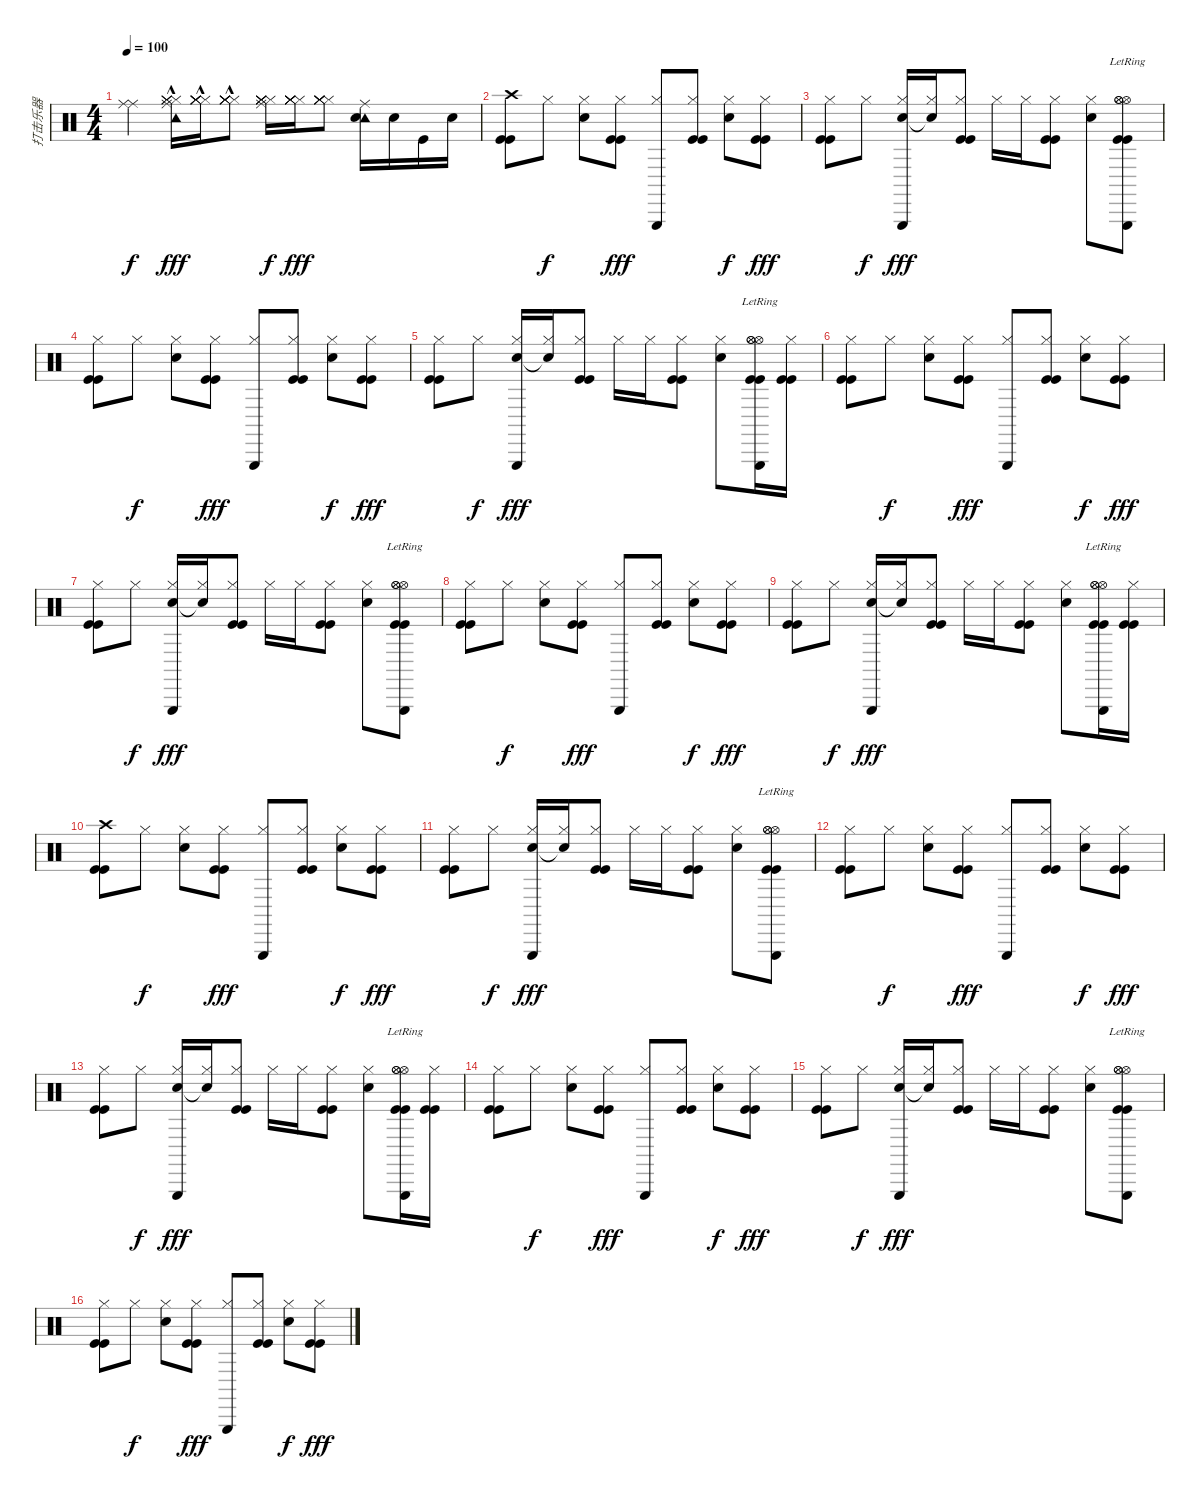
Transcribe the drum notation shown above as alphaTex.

\track ("打击乐器" "打击乐器") {instrument percussion}
\staff {score}
\articulation defaults
\ts (4 4)
\tempo 100
\clef neutral
\ks c
("Ride (middle)" "Ride (middle)").4{dy f} ("Ride (middle)"{hac} "Tambourine (hit)" "Hi-Hat (closed)" "Hi-Hat (closed)" "Hi-Hat (closed)" "Hi-Hat (closed)").16{dy fff} ("Hi-Hat (closed)"{hac} "Hi-Hat (closed)" "Hi-Hat (closed)" "Hi-Hat (closed)" "Hi-Hat (closed)" "Hi-Hat (closed)").16 ("Hi-Hat (closed)" "Hi-Hat (closed)"{hac} "Hi-Hat (closed)" "Hi-Hat (closed)" "Hi-Hat (closed)" "Hi-Hat (closed)").8 ("Ride (middle)" "Hi-Hat (closed)" "Hi-Hat (closed)" "Hi-Hat (closed)" "Hi-Hat (closed)" "Hi-Hat (closed)").16{dy f} ("Hi-Hat (closed)" "Hi-Hat (closed)" "Hi-Hat (closed)" "Hi-Hat (closed)" "Hi-Hat (closed)" "Hi-Hat (closed)").16{dy fff} ("Hi-Hat (closed)" "Hi-Hat (closed)" "Hi-Hat (closed)" "Hi-Hat (closed)" "Hi-Hat (closed)" "Hi-Hat (closed)").8 ("Ride (middle)" "Tambourine (hit)" "Electric Snare (hit)").16 "Electric Snare (hit)".16 "Kick (hit)".16 "Electric Snare (hit)".16 |
("Crash high (hit)" "Kick (hit)" "Kick (hit)").8 "Hi-Hat (closed)".8{dy f} ("Hi-Hat (closed)" "Electric Snare (hit)").8 ("Hi-Hat (closed)" "Kick (hit)" "Kick (hit)").8{dy fff} ("Hi-Hat (closed)" "Triangle (hit)").8 ("Hi-Hat (closed)" "Kick (hit)" "Kick (hit)").8 ("Hi-Hat (closed)" "Electric Snare (hit)").8{dy f} ("Hi-Hat (closed)" "Kick (hit)" "Kick (hit)").8{dy fff} |
("Hi-Hat (closed)" "Kick (hit)" "Kick (hit)").8 "Hi-Hat (closed)".8{dy f} ("Hi-Hat (closed)" "Electric Snare (hit)" "Triangle (hit)").16{dy fff} ("Hi-Hat (closed)" "Snare (hit)"{t}).16 ("Hi-Hat (closed)" "Kick (hit)" "Kick (hit)").8 "Hi-Hat (closed)".16 "Hi-Hat (closed)".16 ("Hi-Hat (closed)" "Kick (hit)" "Kick (hit)").8 ("Hi-Hat (closed)" "Electric Snare (hit)").8 ("Hi-Hat (open)" "Hi-Hat (open)" "Hi-Hat (open)" "Triangle (hit)"{lr} "Kick (hit)" "Kick (hit)").8 |
("Hi-Hat (closed)" "Kick (hit)" "Kick (hit)").8 "Hi-Hat (closed)".8{dy f} ("Hi-Hat (closed)" "Electric Snare (hit)").8 ("Hi-Hat (closed)" "Kick (hit)" "Kick (hit)").8{dy fff} ("Hi-Hat (closed)" "Triangle (hit)").8 ("Hi-Hat (closed)" "Kick (hit)" "Kick (hit)").8 ("Hi-Hat (closed)" "Electric Snare (hit)").8{dy f} ("Hi-Hat (closed)" "Kick (hit)" "Kick (hit)").8{dy fff} |
("Hi-Hat (closed)" "Kick (hit)" "Kick (hit)").8 "Hi-Hat (closed)".8{dy f} ("Hi-Hat (closed)" "Electric Snare (hit)" "Triangle (hit)").16{dy fff} ("Hi-Hat (closed)" "Snare (hit)"{t}).16 ("Hi-Hat (closed)" "Kick (hit)" "Kick (hit)").8 "Hi-Hat (closed)".16 "Hi-Hat (closed)".16 ("Hi-Hat (closed)" "Kick (hit)" "Kick (hit)").8 ("Hi-Hat (closed)" "Electric Snare (hit)").8 ("Hi-Hat (open)" "Hi-Hat (open)" "Hi-Hat (open)" "Triangle (hit)"{lr} "Kick (hit)" "Kick (hit)").16 ("Hi-Hat (closed)" "Kick (hit)" "Kick (hit)").16 |
("Hi-Hat (closed)" "Kick (hit)" "Kick (hit)").8 "Hi-Hat (closed)".8{dy f} ("Hi-Hat (closed)" "Electric Snare (hit)").8 ("Hi-Hat (closed)" "Kick (hit)" "Kick (hit)").8{dy fff} ("Hi-Hat (closed)" "Triangle (hit)").8 ("Hi-Hat (closed)" "Kick (hit)" "Kick (hit)").8 ("Hi-Hat (closed)" "Electric Snare (hit)").8{dy f} ("Hi-Hat (closed)" "Kick (hit)" "Kick (hit)").8{dy fff} |
("Hi-Hat (closed)" "Kick (hit)" "Kick (hit)").8 "Hi-Hat (closed)".8{dy f} ("Hi-Hat (closed)" "Electric Snare (hit)" "Triangle (hit)").16{dy fff} ("Hi-Hat (closed)" "Snare (hit)"{t}).16 ("Hi-Hat (closed)" "Kick (hit)" "Kick (hit)").8 "Hi-Hat (closed)".16 "Hi-Hat (closed)".16 ("Hi-Hat (closed)" "Kick (hit)" "Kick (hit)").8 ("Hi-Hat (closed)" "Electric Snare (hit)").8 ("Hi-Hat (open)" "Hi-Hat (open)" "Hi-Hat (open)" "Triangle (hit)"{lr} "Kick (hit)" "Kick (hit)").8 |
("Hi-Hat (closed)" "Kick (hit)" "Kick (hit)").8 "Hi-Hat (closed)".8{dy f} ("Hi-Hat (closed)" "Electric Snare (hit)").8 ("Hi-Hat (closed)" "Kick (hit)" "Kick (hit)").8{dy fff} ("Hi-Hat (closed)" "Triangle (hit)").8 ("Hi-Hat (closed)" "Kick (hit)" "Kick (hit)").8 ("Hi-Hat (closed)" "Electric Snare (hit)").8{dy f} ("Hi-Hat (closed)" "Kick (hit)" "Kick (hit)").8{dy fff} |
("Hi-Hat (closed)" "Kick (hit)" "Kick (hit)").8 "Hi-Hat (closed)".8{dy f} ("Hi-Hat (closed)" "Electric Snare (hit)" "Triangle (hit)").16{dy fff} ("Hi-Hat (closed)" "Snare (hit)"{t}).16 ("Hi-Hat (closed)" "Kick (hit)" "Kick (hit)").8 "Hi-Hat (closed)".16 "Hi-Hat (closed)".16 ("Hi-Hat (closed)" "Kick (hit)" "Kick (hit)").8 ("Hi-Hat (closed)" "Electric Snare (hit)").8 ("Hi-Hat (open)" "Hi-Hat (open)" "Hi-Hat (open)" "Triangle (hit)"{lr} "Kick (hit)" "Kick (hit)").16 ("Hi-Hat (closed)" "Kick (hit)" "Kick (hit)").16 |
("Crash high (hit)" "Kick (hit)" "Kick (hit)").8 "Hi-Hat (closed)".8{dy f} ("Hi-Hat (closed)" "Electric Snare (hit)").8 ("Hi-Hat (closed)" "Kick (hit)" "Kick (hit)").8{dy fff} ("Hi-Hat (closed)" "Triangle (hit)").8 ("Hi-Hat (closed)" "Kick (hit)" "Kick (hit)").8 ("Hi-Hat (closed)" "Electric Snare (hit)").8{dy f} ("Hi-Hat (closed)" "Kick (hit)" "Kick (hit)").8{dy fff} |
("Hi-Hat (closed)" "Kick (hit)" "Kick (hit)").8 "Hi-Hat (closed)".8{dy f} ("Hi-Hat (closed)" "Electric Snare (hit)" "Triangle (hit)").16{dy fff} ("Hi-Hat (closed)" "Snare (hit)"{t}).16 ("Hi-Hat (closed)" "Kick (hit)" "Kick (hit)").8 "Hi-Hat (closed)".16 "Hi-Hat (closed)".16 ("Hi-Hat (closed)" "Kick (hit)" "Kick (hit)").8 ("Hi-Hat (closed)" "Electric Snare (hit)").8 ("Hi-Hat (open)" "Hi-Hat (open)" "Hi-Hat (open)" "Triangle (hit)"{lr} "Kick (hit)" "Kick (hit)").8 |
("Hi-Hat (closed)" "Kick (hit)" "Kick (hit)").8 "Hi-Hat (closed)".8{dy f} ("Hi-Hat (closed)" "Electric Snare (hit)").8 ("Hi-Hat (closed)" "Kick (hit)" "Kick (hit)").8{dy fff} ("Hi-Hat (closed)" "Triangle (hit)").8 ("Hi-Hat (closed)" "Kick (hit)" "Kick (hit)").8 ("Hi-Hat (closed)" "Electric Snare (hit)").8{dy f} ("Hi-Hat (closed)" "Kick (hit)" "Kick (hit)").8{dy fff} |
("Hi-Hat (closed)" "Kick (hit)" "Kick (hit)").8 "Hi-Hat (closed)".8{dy f} ("Hi-Hat (closed)" "Electric Snare (hit)" "Triangle (hit)").16{dy fff} ("Hi-Hat (closed)" "Snare (hit)"{t}).16 ("Hi-Hat (closed)" "Kick (hit)" "Kick (hit)").8 "Hi-Hat (closed)".16 "Hi-Hat (closed)".16 ("Hi-Hat (closed)" "Kick (hit)" "Kick (hit)").8 ("Hi-Hat (closed)" "Electric Snare (hit)").8 ("Hi-Hat (open)" "Hi-Hat (open)" "Hi-Hat (open)" "Triangle (hit)"{lr} "Kick (hit)" "Kick (hit)").16 ("Hi-Hat (closed)" "Kick (hit)" "Kick (hit)").16 |
("Hi-Hat (closed)" "Kick (hit)" "Kick (hit)").8 "Hi-Hat (closed)".8{dy f} ("Hi-Hat (closed)" "Electric Snare (hit)").8 ("Hi-Hat (closed)" "Kick (hit)" "Kick (hit)").8{dy fff} ("Hi-Hat (closed)" "Triangle (hit)").8 ("Hi-Hat (closed)" "Kick (hit)" "Kick (hit)").8 ("Hi-Hat (closed)" "Electric Snare (hit)").8{dy f} ("Hi-Hat (closed)" "Kick (hit)" "Kick (hit)").8{dy fff} |
("Hi-Hat (closed)" "Kick (hit)" "Kick (hit)").8 "Hi-Hat (closed)".8{dy f} ("Hi-Hat (closed)" "Electric Snare (hit)" "Triangle (hit)").16{dy fff} ("Hi-Hat (closed)" "Snare (hit)"{t}).16 ("Hi-Hat (closed)" "Kick (hit)" "Kick (hit)").8 "Hi-Hat (closed)".16 "Hi-Hat (closed)".16 ("Hi-Hat (closed)" "Kick (hit)" "Kick (hit)").8 ("Hi-Hat (closed)" "Electric Snare (hit)").8 ("Hi-Hat (open)" "Hi-Hat (open)" "Hi-Hat (open)" "Triangle (hit)"{lr} "Kick (hit)" "Kick (hit)").8 |
("Hi-Hat (closed)" "Kick (hit)" "Kick (hit)").8 "Hi-Hat (closed)".8{dy f} ("Hi-Hat (closed)" "Electric Snare (hit)").8 ("Hi-Hat (closed)" "Kick (hit)" "Kick (hit)").8{dy fff} ("Hi-Hat (closed)" "Triangle (hit)").8 ("Hi-Hat (closed)" "Kick (hit)" "Kick (hit)").8 ("Hi-Hat (closed)" "Electric Snare (hit)").8{dy f} ("Hi-Hat (closed)" "Kick (hit)" "Kick (hit)").8{dy fff}
